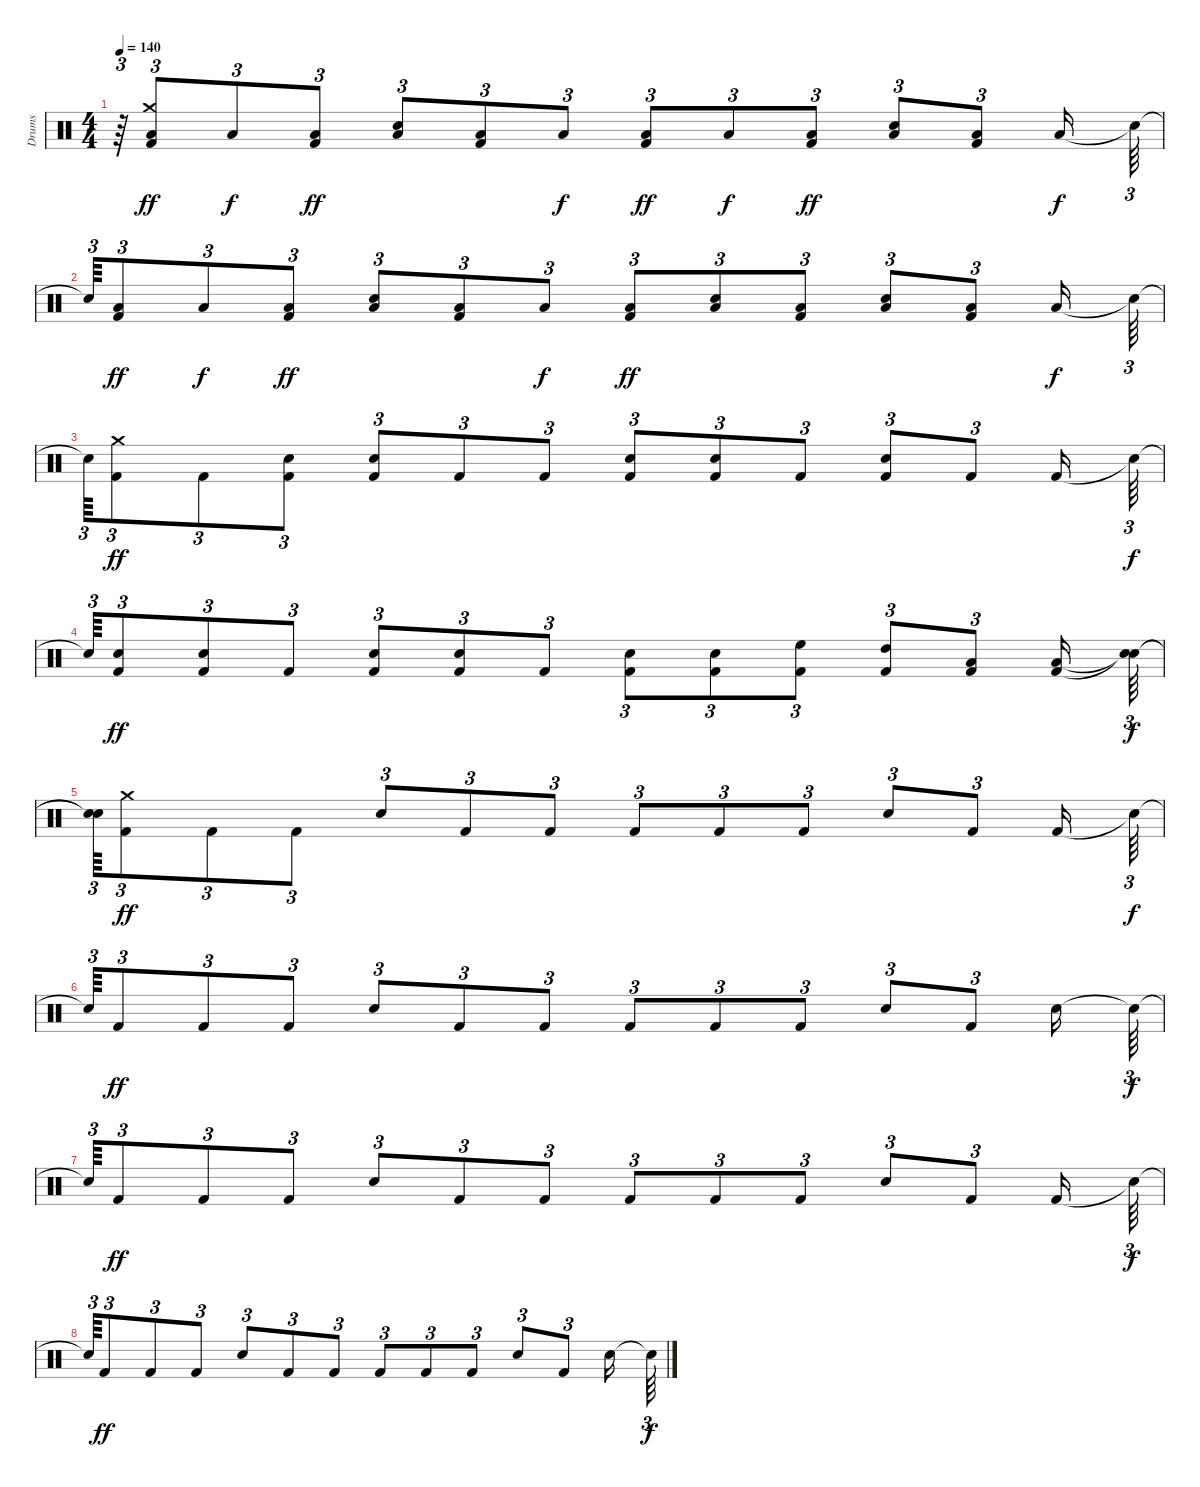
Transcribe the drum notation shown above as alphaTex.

\track ("Drums" "Drums") {instrument percussion}
\staff {score}
\articulation defaults
\ts (4 4)
\tempo 140
\clef neutral
\ks c
r.64{tu (3 2) dy ff} ("Kick (hit) 2" "Crash medium (hit)" "Low Floor Tom (hit)").8{tu (3 2)} "Low Floor Tom (hit)".8{tu (3 2) dy f} ("Kick (hit) 2" "Low Floor Tom (hit)").8{tu (3 2) dy ff} ("Snare (hit) 2" "Low Floor Tom (hit)").8{tu (3 2)} ("Kick (hit) 2" "Low Floor Tom (hit)").8{tu (3 2)} "Low Floor Tom (hit)".8{tu (3 2) dy f} ("Kick (hit) 2" "Low Floor Tom (hit)").8{tu (3 2) dy ff} "Low Floor Tom (hit)".8{tu (3 2) dy f} ("Kick (hit) 2" "Low Floor Tom (hit)").8{tu (3 2) dy ff} ("Snare (hit) 2" "Low Floor Tom (hit)").8{tu (3 2)} ("Kick (hit) 2" "Low Floor Tom (hit)").8{tu (3 2)} "Low Floor Tom (hit)".16{dy f} "Snare (hit)"{t}.64{tu (3 2)} |
"Snare (hit)"{t}.64{tu (3 2)} ("Kick (hit) 2" "Low Floor Tom (hit)").8{tu (3 2) dy ff} "Low Floor Tom (hit)".8{tu (3 2) dy f} ("Kick (hit) 2" "Low Floor Tom (hit)").8{tu (3 2) dy ff} ("Snare (hit) 2" "Low Floor Tom (hit)").8{tu (3 2)} ("Kick (hit) 2" "Low Floor Tom (hit)").8{tu (3 2)} "Low Floor Tom (hit)".8{tu (3 2) dy f} ("Kick (hit) 2" "Low Floor Tom (hit)").8{tu (3 2) dy ff} ("Snare (hit) 2" "Low Floor Tom (hit)").8{tu (3 2)} ("Kick (hit) 2" "Low Floor Tom (hit)").8{tu (3 2)} ("Snare (hit) 2" "Low Floor Tom (hit)").8{tu (3 2)} ("Kick (hit) 2" "Low Floor Tom (hit)").8{tu (3 2)} "Low Floor Tom (hit)".16{dy f} "Snare (hit)"{t}.64{tu (3 2)} |
"Snare (hit)"{t}.64{tu (3 2)} ("Kick (hit) 2" "Crash medium (hit)").8{tu (3 2) dy ff} "Kick (hit) 2".8{tu (3 2)} ("Kick (hit) 2" "Snare (hit) 2").8{tu (3 2)} ("Snare (hit) 2" "Kick (hit) 2").8{tu (3 2)} "Kick (hit) 2".8{tu (3 2)} "Kick (hit) 2".8{tu (3 2)} ("Snare (hit) 2" "Kick (hit) 2").8{tu (3 2)} ("Snare (hit) 2" "Kick (hit) 2").8{tu (3 2)} "Kick (hit) 2".8{tu (3 2)} ("Snare (hit) 2" "Kick (hit) 2").8{tu (3 2)} "Kick (hit) 2".8{tu (3 2)} "Kick (hit) 2".16 "Snare (hit)"{t}.64{tu (3 2) dy f} |
"Snare (hit)"{t}.64{tu (3 2)} ("Snare (hit) 2" "Kick (hit) 2").8{tu (3 2) dy ff} ("Snare (hit) 2" "Kick (hit) 2").8{tu (3 2)} "Kick (hit) 2".8{tu (3 2)} ("Snare (hit) 2" "Kick (hit) 2").8{tu (3 2)} ("Snare (hit) 2" "Kick (hit) 2").8{tu (3 2)} "Kick (hit) 2".8{tu (3 2)} ("Snare (hit) 2" "Kick (hit) 2").8{tu (3 2)} ("Snare (hit) 2" "Kick (hit) 2").8{tu (3 2)} ("High Floor Tom (hit)" "Kick (hit) 2").8{tu (3 2)} ("High Tom (hit)" "Kick (hit) 2").8{tu (3 2)} ("Low Tom (hit)" "Kick (hit) 2").8{tu (3 2)} ("Low Floor Tom (hit)" "Kick (hit) 2").16 ("Snare (hit)"{t} "Snare (hit)"{t}).64{tu (3 2) dy f} |
("Snare (hit)"{t} "Snare (hit)"{t}).64{tu (3 2)} ("Kick (hit) 2" "Crash medium (hit)").8{tu (3 2) dy ff} "Kick (hit) 2".8{tu (3 2)} "Kick (hit) 2".8{tu (3 2)} "Snare (hit) 2".8{tu (3 2)} "Kick (hit) 2".8{tu (3 2)} "Kick (hit) 2".8{tu (3 2)} "Kick (hit) 2".8{tu (3 2)} "Kick (hit) 2".8{tu (3 2)} "Kick (hit) 2".8{tu (3 2)} "Snare (hit) 2".8{tu (3 2)} "Kick (hit) 2".8{tu (3 2)} "Kick (hit) 2".16 "Snare (hit)"{t}.64{tu (3 2) dy f} |
"Snare (hit)"{t}.64{tu (3 2)} "Kick (hit) 2".8{tu (3 2) dy ff} "Kick (hit) 2".8{tu (3 2)} "Kick (hit) 2".8{tu (3 2)} "Snare (hit) 2".8{tu (3 2)} "Kick (hit) 2".8{tu (3 2)} "Kick (hit) 2".8{tu (3 2)} "Kick (hit) 2".8{tu (3 2)} "Kick (hit) 2".8{tu (3 2)} "Kick (hit) 2".8{tu (3 2)} "Snare (hit) 2".8{tu (3 2)} "Kick (hit) 2".8{tu (3 2)} "Snare (hit) 2".16 "Snare (hit)"{t}.64{tu (3 2) dy f} |
"Snare (hit)"{t}.64{tu (3 2)} "Kick (hit) 2".8{tu (3 2) dy ff} "Kick (hit) 2".8{tu (3 2)} "Kick (hit) 2".8{tu (3 2)} "Snare (hit) 2".8{tu (3 2)} "Kick (hit) 2".8{tu (3 2)} "Kick (hit) 2".8{tu (3 2)} "Kick (hit) 2".8{tu (3 2)} "Kick (hit) 2".8{tu (3 2)} "Kick (hit) 2".8{tu (3 2)} "Snare (hit) 2".8{tu (3 2)} "Kick (hit) 2".8{tu (3 2)} "Kick (hit) 2".16 "Snare (hit)"{t}.64{tu (3 2) dy f} |
"Snare (hit)"{t}.64{tu (3 2)} "Kick (hit) 2".8{tu (3 2) dy ff} "Kick (hit) 2".8{tu (3 2)} "Kick (hit) 2".8{tu (3 2)} "Snare (hit) 2".8{tu (3 2)} "Kick (hit) 2".8{tu (3 2)} "Kick (hit) 2".8{tu (3 2)} "Kick (hit) 2".8{tu (3 2)} "Kick (hit) 2".8{tu (3 2)} "Kick (hit) 2".8{tu (3 2)} "Snare (hit) 2".8{tu (3 2)} "Kick (hit) 2".8{tu (3 2)} "Snare (hit) 2".16 "Snare (hit)"{t}.64{tu (3 2) dy f}
